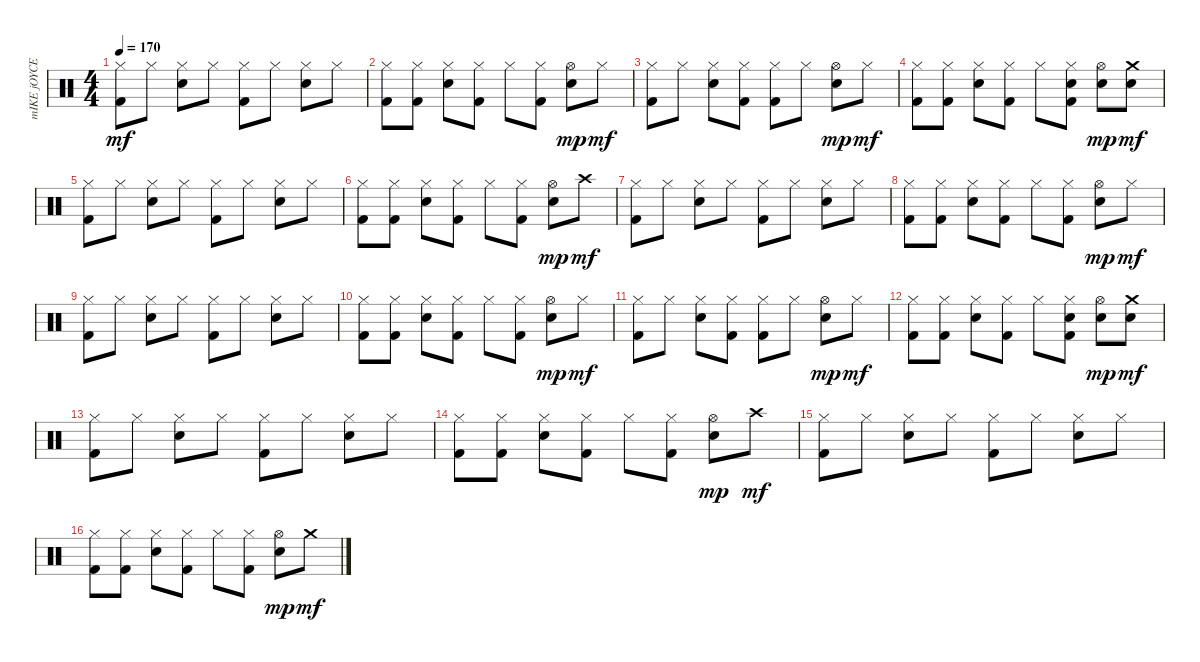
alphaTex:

\track ("mIKE jOYCE" "mIKE jOYCE") {instrument percussion}
\staff {score}
\articulation defaults
\ts (4 4)
\tempo 170
\clef neutral
\ks c
("Hi-Hat (closed)" "Kick (hit) 2").8{dy mf} "Hi-Hat (closed)".8 ("Hi-Hat (closed)" "Electric Snare (hit)").8 "Hi-Hat (closed)".8 ("Hi-Hat (closed)" "Kick (hit) 2").8 "Hi-Hat (closed)".8 ("Hi-Hat (closed)" "Electric Snare (hit)").8 "Hi-Hat (closed)".8 |
("Hi-Hat (closed)" "Kick (hit) 2").8 ("Hi-Hat (closed)" "Kick (hit) 2").8 ("Hi-Hat (closed)" "Electric Snare (hit)").8 ("Hi-Hat (closed)" "Kick (hit) 2").8 "Hi-Hat (closed)".8 ("Hi-Hat (closed)" "Kick (hit) 2").8 ("Hi-Hat (open)" "Electric Snare (hit)").8{dy mp} "Hi-Hat (closed)".8{dy mf} |
("Hi-Hat (closed)" "Kick (hit) 2").8 "Hi-Hat (closed)".8 ("Hi-Hat (closed)" "Electric Snare (hit)").8 ("Hi-Hat (closed)" "Kick (hit) 2").8 ("Hi-Hat (closed)" "Kick (hit) 2").8 "Hi-Hat (closed)".8 ("Hi-Hat (open)" "Electric Snare (hit)").8{dy mp} "Hi-Hat (closed)".8{dy mf} |
("Hi-Hat (closed)" "Kick (hit) 2").8 ("Hi-Hat (closed)" "Kick (hit) 2").8 ("Hi-Hat (closed)" "Electric Snare (hit)").8 ("Hi-Hat (closed)" "Kick (hit) 2").8 "Hi-Hat (closed)".8 ("Hi-Hat (closed)" "Electric Snare (hit)" "Kick (hit) 2").8 ("Hi-Hat (open)" "Electric Snare (hit)").8{dy mp} ("Crash medium (hit)" "Electric Snare (hit)").8{dy mf} |
("Hi-Hat (closed)" "Kick (hit) 2").8 "Hi-Hat (closed)".8 ("Hi-Hat (closed)" "Electric Snare (hit)").8 "Hi-Hat (closed)".8 ("Hi-Hat (closed)" "Kick (hit) 2").8 "Hi-Hat (closed)".8 ("Hi-Hat (closed)" "Electric Snare (hit)").8 "Hi-Hat (closed)".8 |
("Hi-Hat (closed)" "Kick (hit) 2").8 ("Hi-Hat (closed)" "Kick (hit) 2").8 ("Hi-Hat (closed)" "Electric Snare (hit)").8 ("Hi-Hat (closed)" "Kick (hit) 2").8 "Hi-Hat (closed)".8 ("Hi-Hat (closed)" "Kick (hit) 2").8 ("Hi-Hat (open)" "Electric Snare (hit)").8{dy mp} "Crash high (hit)".8{dy mf} |
("Hi-Hat (closed)" "Kick (hit) 2").8 "Hi-Hat (closed)".8 ("Hi-Hat (closed)" "Electric Snare (hit)").8 "Hi-Hat (closed)".8 ("Hi-Hat (closed)" "Kick (hit) 2").8 "Hi-Hat (closed)".8 ("Hi-Hat (closed)" "Electric Snare (hit)").8 "Hi-Hat (closed)".8 |
("Hi-Hat (closed)" "Kick (hit) 2").8 ("Hi-Hat (closed)" "Kick (hit) 2").8 ("Hi-Hat (closed)" "Electric Snare (hit)").8 ("Hi-Hat (closed)" "Kick (hit) 2").8 "Hi-Hat (closed)".8 ("Hi-Hat (closed)" "Kick (hit) 2").8 ("Hi-Hat (open)" "Electric Snare (hit)").8{dy mp} "Hi-Hat (closed)".8{dy mf} |
("Hi-Hat (closed)" "Kick (hit) 2").8 "Hi-Hat (closed)".8 ("Hi-Hat (closed)" "Electric Snare (hit)").8 "Hi-Hat (closed)".8 ("Hi-Hat (closed)" "Kick (hit) 2").8 "Hi-Hat (closed)".8 ("Hi-Hat (closed)" "Electric Snare (hit)").8 "Hi-Hat (closed)".8 |
("Hi-Hat (closed)" "Kick (hit) 2").8 ("Hi-Hat (closed)" "Kick (hit) 2").8 ("Hi-Hat (closed)" "Electric Snare (hit)").8 ("Hi-Hat (closed)" "Kick (hit) 2").8 "Hi-Hat (closed)".8 ("Hi-Hat (closed)" "Kick (hit) 2").8 ("Hi-Hat (open)" "Electric Snare (hit)").8{dy mp} "Hi-Hat (closed)".8{dy mf} |
("Hi-Hat (closed)" "Kick (hit) 2").8 "Hi-Hat (closed)".8 ("Hi-Hat (closed)" "Electric Snare (hit)").8 ("Hi-Hat (closed)" "Kick (hit) 2").8 ("Hi-Hat (closed)" "Kick (hit) 2").8 "Hi-Hat (closed)".8 ("Hi-Hat (open)" "Electric Snare (hit)").8{dy mp} "Hi-Hat (closed)".8{dy mf} |
("Hi-Hat (closed)" "Kick (hit) 2").8 ("Hi-Hat (closed)" "Kick (hit) 2").8 ("Hi-Hat (closed)" "Electric Snare (hit)").8 ("Hi-Hat (closed)" "Kick (hit) 2").8 "Hi-Hat (closed)".8 ("Hi-Hat (closed)" "Electric Snare (hit)" "Kick (hit) 2").8 ("Hi-Hat (open)" "Electric Snare (hit)").8{dy mp} ("Crash medium (hit)" "Electric Snare (hit)").8{dy mf} |
("Hi-Hat (closed)" "Kick (hit) 2").8 "Hi-Hat (closed)".8 ("Hi-Hat (closed)" "Electric Snare (hit)").8 "Hi-Hat (closed)".8 ("Hi-Hat (closed)" "Kick (hit) 2").8 "Hi-Hat (closed)".8 ("Hi-Hat (closed)" "Electric Snare (hit)").8 "Hi-Hat (closed)".8 |
("Hi-Hat (closed)" "Kick (hit) 2").8 ("Hi-Hat (closed)" "Kick (hit) 2").8 ("Hi-Hat (closed)" "Electric Snare (hit)").8 ("Hi-Hat (closed)" "Kick (hit) 2").8 "Hi-Hat (closed)".8 ("Hi-Hat (closed)" "Kick (hit) 2").8 ("Hi-Hat (open)" "Electric Snare (hit)").8{dy mp} "Crash high (hit)".8{dy mf} |
("Hi-Hat (closed)" "Kick (hit) 2").8 "Hi-Hat (closed)".8 ("Hi-Hat (closed)" "Electric Snare (hit)").8 "Hi-Hat (closed)".8 ("Hi-Hat (closed)" "Kick (hit) 2").8 "Hi-Hat (closed)".8 ("Hi-Hat (closed)" "Electric Snare (hit)").8 "Hi-Hat (closed)".8 |
("Hi-Hat (closed)" "Kick (hit) 2").8 ("Hi-Hat (closed)" "Kick (hit) 2").8 ("Hi-Hat (closed)" "Electric Snare (hit)").8 ("Hi-Hat (closed)" "Kick (hit) 2").8 "Hi-Hat (closed)".8 ("Hi-Hat (closed)" "Kick (hit) 2").8 ("Hi-Hat (open)" "Electric Snare (hit)").8{dy mp} "Crash medium (hit)".8{dy mf}
